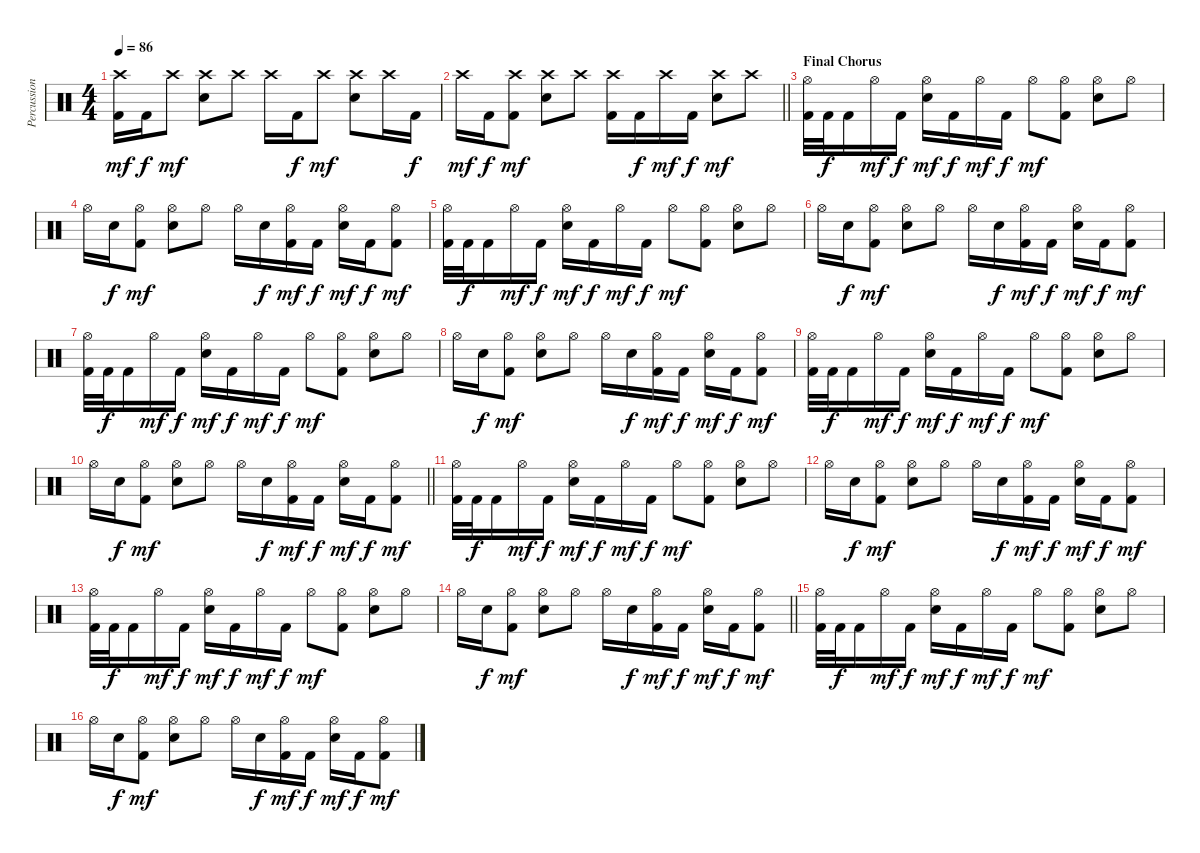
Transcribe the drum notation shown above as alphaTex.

\track ("Percussion" "Percussion") {instrument percussion}
\staff {score}
\articulation defaults
\ts (4 4)
\tempo 86
\clef neutral
\ks c
("Crash high (hit)" "Kick (hit) 2").16{dy mf} "Kick (hit) 2".16{dy f} "Crash high (hit)".8{dy mf} ("Crash high (hit)" "Electric Snare (hit)").8 "Crash high (hit)".8 "Crash high (hit)".16 "Kick (hit) 2".16{dy f} "Crash high (hit)".8{dy mf} ("Crash high (hit)" "Electric Snare (hit)").8 "Crash high (hit)".16 "Kick (hit) 2".16{dy f} |
\barLineRight lightlight "Crash high (hit)".16{dy mf} "Kick (hit) 2".16{dy f}
("Crash high (hit)" "Kick (hit) 2").8{dy mf} ("Crash high (hit)" "Electric Snare (hit)").8 "Crash high (hit)".8 ("Crash high (hit)" "Kick (hit) 2").16 "Kick (hit) 2".16{dy f} "Crash high (hit)".16{dy mf} "Kick (hit) 2".16{dy f} ("Crash high (hit)" "Electric Snare (hit)").8{dy mf} "Crash high (hit)".8 |
\section ("" "Final Chorus")
("Hi-Hat (open)" "Kick (hit) 2").32 "Kick (hit) 2".32{dy f} "Kick (hit) 2".16 "Hi-Hat (open)".16{dy mf} "Kick (hit) 2".16{dy f} ("Hi-Hat (open)" "Electric Snare (hit)").16{dy mf} "Kick (hit) 2".16{dy f} "Hi-Hat (open)".16{dy mf} "Kick (hit) 2".16{dy f} "Hi-Hat (open)".8{dy mf} ("Hi-Hat (open)" "Kick (hit) 2").8 ("Hi-Hat (open)" "Electric Snare (hit)").8 "Hi-Hat (open)".8 |
"Hi-Hat (open)".16 "Electric Snare (hit)".16{dy f} ("Hi-Hat (open)" "Kick (hit) 2").8{dy mf} ("Hi-Hat (open)" "Electric Snare (hit)").8 "Hi-Hat (open)".8 "Hi-Hat (open)".16 "Electric Snare (hit)".16{dy f} ("Hi-Hat (open)" "Kick (hit) 2").16{dy mf} "Kick (hit) 2".16{dy f} ("Hi-Hat (open)" "Electric Snare (hit)").16{dy mf} "Kick (hit) 2".16{dy f} ("Hi-Hat (open)" "Kick (hit) 2").8{dy mf} |
("Hi-Hat (open)" "Kick (hit) 2").32 "Kick (hit) 2".32{dy f} "Kick (hit) 2".16 "Hi-Hat (open)".16{dy mf} "Kick (hit) 2".16{dy f} ("Hi-Hat (open)" "Electric Snare (hit)").16{dy mf} "Kick (hit) 2".16{dy f} "Hi-Hat (open)".16{dy mf} "Kick (hit) 2".16{dy f} "Hi-Hat (open)".8{dy mf} ("Hi-Hat (open)" "Kick (hit) 2").8 ("Hi-Hat (open)" "Electric Snare (hit)").8 "Hi-Hat (open)".8 |
"Hi-Hat (open)".16 "Electric Snare (hit)".16{dy f} ("Hi-Hat (open)" "Kick (hit) 2").8{dy mf} ("Hi-Hat (open)" "Electric Snare (hit)").8 "Hi-Hat (open)".8 "Hi-Hat (open)".16 "Electric Snare (hit)".16{dy f} ("Hi-Hat (open)" "Kick (hit) 2").16{dy mf} "Kick (hit) 2".16{dy f} ("Hi-Hat (open)" "Electric Snare (hit)").16{dy mf} "Kick (hit) 2".16{dy f} ("Hi-Hat (open)" "Kick (hit) 2").8{dy mf} |
("Hi-Hat (open)" "Kick (hit) 2").32 "Kick (hit) 2".32{dy f} "Kick (hit) 2".16 "Hi-Hat (open)".16{dy mf} "Kick (hit) 2".16{dy f} ("Hi-Hat (open)" "Electric Snare (hit)").16{dy mf} "Kick (hit) 2".16{dy f} "Hi-Hat (open)".16{dy mf} "Kick (hit) 2".16{dy f} "Hi-Hat (open)".8{dy mf} ("Hi-Hat (open)" "Kick (hit) 2").8 ("Hi-Hat (open)" "Electric Snare (hit)").8 "Hi-Hat (open)".8 |
"Hi-Hat (open)".16 "Electric Snare (hit)".16{dy f} ("Hi-Hat (open)" "Kick (hit) 2").8{dy mf} ("Hi-Hat (open)" "Electric Snare (hit)").8 "Hi-Hat (open)".8 "Hi-Hat (open)".16 "Electric Snare (hit)".16{dy f} ("Hi-Hat (open)" "Kick (hit) 2").16{dy mf} "Kick (hit) 2".16{dy f} ("Hi-Hat (open)" "Electric Snare (hit)").16{dy mf} "Kick (hit) 2".16{dy f} ("Hi-Hat (open)" "Kick (hit) 2").8{dy mf} |
("Hi-Hat (open)" "Kick (hit) 2").32 "Kick (hit) 2".32{dy f} "Kick (hit) 2".16 "Hi-Hat (open)".16{dy mf} "Kick (hit) 2".16{dy f} ("Hi-Hat (open)" "Electric Snare (hit)").16{dy mf} "Kick (hit) 2".16{dy f} "Hi-Hat (open)".16{dy mf} "Kick (hit) 2".16{dy f} "Hi-Hat (open)".8{dy mf} ("Hi-Hat (open)" "Kick (hit) 2").8 ("Hi-Hat (open)" "Electric Snare (hit)").8 "Hi-Hat (open)".8 |
\barLineRight lightlight "Hi-Hat (open)".16 "Electric Snare (hit)".16{dy f}
("Hi-Hat (open)" "Kick (hit) 2").8{dy mf} ("Hi-Hat (open)" "Electric Snare (hit)").8 "Hi-Hat (open)".8 "Hi-Hat (open)".16 "Electric Snare (hit)".16{dy f} ("Hi-Hat (open)" "Kick (hit) 2").16{dy mf} "Kick (hit) 2".16{dy f} ("Hi-Hat (open)" "Electric Snare (hit)").16{dy mf} "Kick (hit) 2".16{dy f} ("Hi-Hat (open)" "Kick (hit) 2").8{dy mf} |
("Hi-Hat (open)" "Kick (hit) 2").32 "Kick (hit) 2".32{dy f} "Kick (hit) 2".16 "Hi-Hat (open)".16{dy mf} "Kick (hit) 2".16{dy f} ("Hi-Hat (open)" "Electric Snare (hit)").16{dy mf} "Kick (hit) 2".16{dy f} "Hi-Hat (open)".16{dy mf} "Kick (hit) 2".16{dy f} "Hi-Hat (open)".8{dy mf} ("Hi-Hat (open)" "Kick (hit) 2").8 ("Hi-Hat (open)" "Electric Snare (hit)").8 "Hi-Hat (open)".8 |
"Hi-Hat (open)".16 "Electric Snare (hit)".16{dy f} ("Hi-Hat (open)" "Kick (hit) 2").8{dy mf} ("Hi-Hat (open)" "Electric Snare (hit)").8 "Hi-Hat (open)".8 "Hi-Hat (open)".16 "Electric Snare (hit)".16{dy f} ("Hi-Hat (open)" "Kick (hit) 2").16{dy mf} "Kick (hit) 2".16{dy f} ("Hi-Hat (open)" "Electric Snare (hit)").16{dy mf} "Kick (hit) 2".16{dy f} ("Hi-Hat (open)" "Kick (hit) 2").8{dy mf} |
("Hi-Hat (open)" "Kick (hit) 2").32 "Kick (hit) 2".32{dy f} "Kick (hit) 2".16 "Hi-Hat (open)".16{dy mf} "Kick (hit) 2".16{dy f} ("Hi-Hat (open)" "Electric Snare (hit)").16{dy mf} "Kick (hit) 2".16{dy f} "Hi-Hat (open)".16{dy mf} "Kick (hit) 2".16{dy f} "Hi-Hat (open)".8{dy mf} ("Hi-Hat (open)" "Kick (hit) 2").8 ("Hi-Hat (open)" "Electric Snare (hit)").8 "Hi-Hat (open)".8 |
\barLineRight lightlight "Hi-Hat (open)".16 "Electric Snare (hit)".16{dy f}
("Hi-Hat (open)" "Kick (hit) 2").8{dy mf} ("Hi-Hat (open)" "Electric Snare (hit)").8 "Hi-Hat (open)".8 "Hi-Hat (open)".16 "Electric Snare (hit)".16{dy f} ("Hi-Hat (open)" "Kick (hit) 2").16{dy mf} "Kick (hit) 2".16{dy f} ("Hi-Hat (open)" "Electric Snare (hit)").16{dy mf} "Kick (hit) 2".16{dy f} ("Hi-Hat (open)" "Kick (hit) 2").8{dy mf} |
("Hi-Hat (open)" "Kick (hit) 2").32{volume 0} "Kick (hit) 2".32{dy f} "Kick (hit) 2".16 "Hi-Hat (open)".16{dy mf} "Kick (hit) 2".16{dy f} ("Hi-Hat (open)" "Electric Snare (hit)").16{dy mf} "Kick (hit) 2".16{dy f} "Hi-Hat (open)".16{dy mf} "Kick (hit) 2".16{dy f} "Hi-Hat (open)".8{dy mf} ("Hi-Hat (open)" "Kick (hit) 2").8 ("Hi-Hat (open)" "Electric Snare (hit)").8 "Hi-Hat (open)".8 |
"Hi-Hat (open)".16 "Electric Snare (hit)".16{dy f} ("Hi-Hat (open)" "Kick (hit) 2").8{dy mf} ("Hi-Hat (open)" "Electric Snare (hit)").8 "Hi-Hat (open)".8 "Hi-Hat (open)".16 "Electric Snare (hit)".16{dy f} ("Hi-Hat (open)" "Kick (hit) 2").16{dy mf} "Kick (hit) 2".16{dy f} ("Hi-Hat (open)" "Electric Snare (hit)").16{dy mf} "Kick (hit) 2".16{dy f} ("Hi-Hat (open)" "Kick (hit) 2").8{dy mf}
